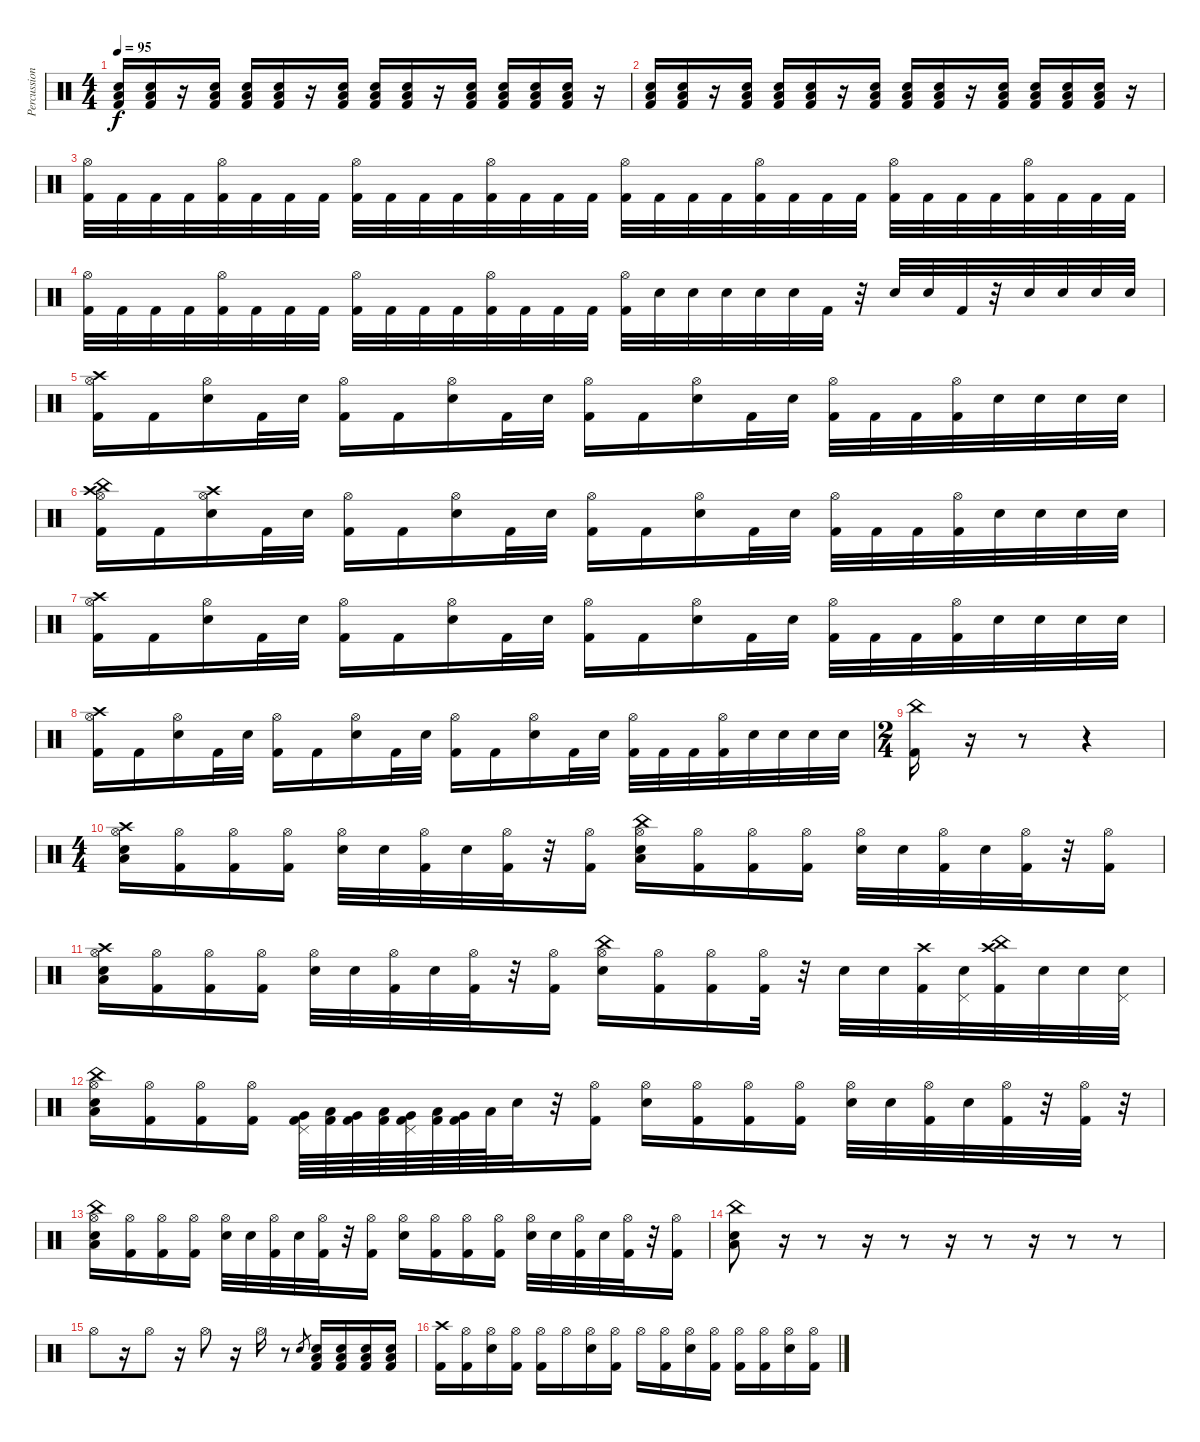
\track ("Percussion" "Percussion") {instrument percussion}
\staff {score}
\articulation defaults
\ts (4 4)
\tempo 95
\clef neutral
\ks c
("Low Floor Tom (hit)" "Electric Snare (hit)" "Kick (hit) 2").16{dy f} ("Low Floor Tom (hit)" "Electric Snare (hit)" "Kick (hit) 2").16 r.16 ("Low Floor Tom (hit)" "Electric Snare (hit)" "Kick (hit) 2").16 ("Low Floor Tom (hit)" "Electric Snare (hit)" "Kick (hit) 2").16 ("Low Floor Tom (hit)" "Electric Snare (hit)" "Kick (hit) 2").16 r.16 ("Low Floor Tom (hit)" "Electric Snare (hit)" "Kick (hit) 2").16 ("Low Floor Tom (hit)" "Electric Snare (hit)" "Kick (hit) 2").16 ("Low Floor Tom (hit)" "Electric Snare (hit)" "Kick (hit) 2").16 r.16 ("Low Floor Tom (hit)" "Electric Snare (hit)" "Kick (hit) 2").16 ("Low Floor Tom (hit)" "Electric Snare (hit)" "Kick (hit) 2").16 ("Low Floor Tom (hit)" "Electric Snare (hit)" "Kick (hit) 2").16 ("Low Floor Tom (hit)" "Electric Snare (hit)" "Kick (hit) 2").16 r.16 |
("Low Floor Tom (hit)" "Electric Snare (hit)" "Kick (hit) 2").16 ("Low Floor Tom (hit)" "Electric Snare (hit)" "Kick (hit) 2").16 r.16 ("Low Floor Tom (hit)" "Electric Snare (hit)" "Kick (hit) 2").16 ("Low Floor Tom (hit)" "Electric Snare (hit)" "Kick (hit) 2").16 ("Low Floor Tom (hit)" "Electric Snare (hit)" "Kick (hit) 2").16 r.16 ("Low Floor Tom (hit)" "Electric Snare (hit)" "Kick (hit) 2").16 ("Low Floor Tom (hit)" "Electric Snare (hit)" "Kick (hit) 2").16 ("Low Floor Tom (hit)" "Electric Snare (hit)" "Kick (hit) 2").16 r.16 ("Low Floor Tom (hit)" "Electric Snare (hit)" "Kick (hit) 2").16 ("Low Floor Tom (hit)" "Electric Snare (hit)" "Kick (hit) 2").16 ("Low Floor Tom (hit)" "Electric Snare (hit)" "Kick (hit) 2").16 ("Low Floor Tom (hit)" "Electric Snare (hit)" "Kick (hit) 2").16 r.16 |
("Hi-Hat (open)" "Kick (hit) 2").32 "Kick (hit) 2".32 "Kick (hit) 2".32 "Kick (hit) 2".32 ("Hi-Hat (open)" "Kick (hit) 2").32 "Kick (hit) 2".32 "Kick (hit) 2".32 "Kick (hit) 2".32 ("Hi-Hat (open)" "Kick (hit) 2").32 "Kick (hit) 2".32 "Kick (hit) 2".32 "Kick (hit) 2".32 ("Hi-Hat (open)" "Kick (hit) 2").32 "Kick (hit) 2".32 "Kick (hit) 2".32 "Kick (hit) 2".32 ("Hi-Hat (open)" "Kick (hit) 2").32 "Kick (hit) 2".32 "Kick (hit) 2".32 "Kick (hit) 2".32 ("Hi-Hat (open)" "Kick (hit) 2").32 "Kick (hit) 2".32 "Kick (hit) 2".32 "Kick (hit) 2".32 ("Hi-Hat (open)" "Kick (hit) 2").32 "Kick (hit) 2".32 "Kick (hit) 2".32 "Kick (hit) 2".32 ("Hi-Hat (open)" "Kick (hit) 2").32 "Kick (hit) 2".32 "Kick (hit) 2".32 "Kick (hit) 2".32 |
("Hi-Hat (open)" "Kick (hit) 2").32 "Kick (hit) 2".32 "Kick (hit) 2".32 "Kick (hit) 2".32 ("Hi-Hat (open)" "Kick (hit) 2").32 "Kick (hit) 2".32 "Kick (hit) 2".32 "Kick (hit) 2".32 ("Hi-Hat (open)" "Kick (hit) 2").32 "Kick (hit) 2".32 "Kick (hit) 2".32 "Kick (hit) 2".32 ("Hi-Hat (open)" "Kick (hit) 2").32 "Kick (hit) 2".32 "Kick (hit) 2".32 "Kick (hit) 2".32 ("Hi-Hat (open)" "Kick (hit) 2").32 "Electric Snare (hit)".32 "Electric Snare (hit)".32 "Electric Snare (hit)".32 "Electric Snare (hit)".32 "Electric Snare (hit)".32 "Kick (hit) 2".32 r.32 "Electric Snare (hit)".32 "Electric Snare (hit)".32 "Kick (hit) 2".32 r.32 "Electric Snare (hit)".32 "Electric Snare (hit)".32 "Electric Snare (hit)".32 "Electric Snare (hit)".32 |
("Crash high (hit)" "Hi-Hat (open)" "Kick (hit) 2").16 "Kick (hit) 2".16 ("Hi-Hat (open)" "Electric Snare (hit)").16 "Kick (hit) 2".32 "Electric Snare (hit)".32 ("Hi-Hat (open)" "Kick (hit) 2").16 "Kick (hit) 2".16 ("Hi-Hat (open)" "Electric Snare (hit)").16 "Kick (hit) 2".32 "Electric Snare (hit)".32 ("Hi-Hat (open)" "Kick (hit) 2").16 "Kick (hit) 2".16 ("Hi-Hat (open)" "Electric Snare (hit)").16 "Kick (hit) 2".32 "Electric Snare (hit)".32 ("Hi-Hat (open)" "Kick (hit) 2").32 "Kick (hit) 2".32 "Kick (hit) 2".32 ("Hi-Hat (open)" "Kick (hit) 2").32 "Electric Snare (hit)".32 "Electric Snare (hit)".32 "Electric Snare (hit)".32 "Electric Snare (hit)".32 |
("China (hit)" "Crash high (hit)" "Hi-Hat (open)" "Kick (hit) 2").16 "Kick (hit) 2".16 ("Crash high (hit)" "Hi-Hat (open)" "Electric Snare (hit)").16 "Kick (hit) 2".32 "Electric Snare (hit)".32 ("Hi-Hat (open)" "Kick (hit) 2").16 "Kick (hit) 2".16 ("Hi-Hat (open)" "Electric Snare (hit)").16 "Kick (hit) 2".32 "Electric Snare (hit)".32 ("Hi-Hat (open)" "Kick (hit) 2").16 "Kick (hit) 2".16 ("Hi-Hat (open)" "Electric Snare (hit)").16 "Kick (hit) 2".32 "Electric Snare (hit)".32 ("Hi-Hat (open)" "Kick (hit) 2").32 "Kick (hit) 2".32 "Kick (hit) 2".32 ("Hi-Hat (open)" "Kick (hit) 2").32 "Electric Snare (hit)".32 "Electric Snare (hit)".32 "Electric Snare (hit)".32 "Electric Snare (hit)".32 |
("Crash high (hit)" "Hi-Hat (open)" "Kick (hit) 2").16 "Kick (hit) 2".16 ("Hi-Hat (open)" "Electric Snare (hit)").16 "Kick (hit) 2".32 "Electric Snare (hit)".32 ("Hi-Hat (open)" "Kick (hit) 2").16 "Kick (hit) 2".16 ("Hi-Hat (open)" "Electric Snare (hit)").16 "Kick (hit) 2".32 "Electric Snare (hit)".32 ("Hi-Hat (open)" "Kick (hit) 2").16 "Kick (hit) 2".16 ("Hi-Hat (open)" "Electric Snare (hit)").16 "Kick (hit) 2".32 "Electric Snare (hit)".32 ("Hi-Hat (open)" "Kick (hit) 2").32 "Kick (hit) 2".32 "Kick (hit) 2".32 ("Hi-Hat (open)" "Kick (hit) 2").32 "Electric Snare (hit)".32 "Electric Snare (hit)".32 "Electric Snare (hit)".32 "Electric Snare (hit)".32 |
("Crash high (hit)" "Hi-Hat (open)" "Kick (hit) 2").16 "Kick (hit) 2".16 ("Hi-Hat (open)" "Electric Snare (hit)").16 "Kick (hit) 2".32 "Electric Snare (hit)".32 ("Hi-Hat (open)" "Kick (hit) 2").16 "Kick (hit) 2".16 ("Hi-Hat (open)" "Electric Snare (hit)").16 "Kick (hit) 2".32 "Electric Snare (hit)".32 ("Hi-Hat (open)" "Kick (hit) 2").16 "Kick (hit) 2".16 ("Hi-Hat (open)" "Electric Snare (hit)").16 "Kick (hit) 2".32 "Electric Snare (hit)".32 ("Hi-Hat (open)" "Kick (hit) 2").32 "Kick (hit) 2".32 "Kick (hit) 2".32 ("Hi-Hat (open)" "Kick (hit) 2").32 "Electric Snare (hit)".32 "Electric Snare (hit)".32 "Electric Snare (hit)".32 "Electric Snare (hit)".32 |
\ts (2 4)
("China (hit)" "Kick (hit) 2").16 r.16 r.8 r.4 |
\ts (4 4)
("Crash high (hit)" "Hi-Hat (open)" "Low Floor Tom (hit)" "Electric Snare (hit)").16 ("Hi-Hat (open)" "Kick (hit) 2").16 ("Hi-Hat (open)" "Kick (hit) 2").16 ("Hi-Hat (open)" "Kick (hit) 2").16 ("Hi-Hat (open)" "Electric Snare (hit)").32 "Electric Snare (hit)".32 ("Hi-Hat (open)" "Kick (hit) 2").32 "Electric Snare (hit)".32 ("Hi-Hat (open)" "Kick (hit) 2").32 r.32 ("Hi-Hat (open)" "Kick (hit) 2").16 ("China (hit)" "Hi-Hat (open)" "Low Floor Tom (hit)" "Electric Snare (hit)").16 ("Hi-Hat (open)" "Kick (hit) 2").16 ("Hi-Hat (open)" "Kick (hit) 2").16 ("Hi-Hat (open)" "Kick (hit) 2").16 ("Hi-Hat (open)" "Electric Snare (hit)").32 "Electric Snare (hit)".32 ("Hi-Hat (open)" "Kick (hit) 2").32 "Electric Snare (hit)".32 ("Hi-Hat (open)" "Kick (hit) 2").32 r.32 ("Hi-Hat (open)" "Kick (hit) 2").16 |
("Crash high (hit)" "Hi-Hat (open)" "Low Floor Tom (hit)" "Electric Snare (hit)").16 ("Hi-Hat (open)" "Kick (hit) 2").16 ("Hi-Hat (open)" "Kick (hit) 2").16 ("Hi-Hat (open)" "Kick (hit) 2").16 ("Hi-Hat (open)" "Electric Snare (hit)").32 "Electric Snare (hit)".32 ("Hi-Hat (open)" "Kick (hit) 2").32 "Electric Snare (hit)".32 ("Hi-Hat (open)" "Kick (hit) 2").32 r.32 ("Hi-Hat (open)" "Kick (hit) 2").16 ("China (hit)" "Hi-Hat (open)" "Electric Snare (hit)").16 ("Hi-Hat (open)" "Kick (hit) 2").16 ("Hi-Hat (open)" "Kick (hit) 2").16 ("Hi-Hat (open)" "Kick (hit) 2").32 r.32 "Electric Snare (hit)".32 "Electric Snare (hit)".32 ("Crash high (hit)" "Kick (hit) 2").32 ("Pedal Hi-Hat (hit)" "Electric Snare (hit)").32 ("Crash high (hit)" "China (hit)" "Kick (hit) 2").32 "Electric Snare (hit)".32 "Electric Snare (hit)".32 ("Pedal Hi-Hat (hit)" "Electric Snare (hit)").32 |
("China (hit)" "Hi-Hat (open)" "Low Floor Tom (hit)" "Electric Snare (hit)").16 ("Hi-Hat (open)" "Kick (hit) 2").16 ("Hi-Hat (open)" "Kick (hit) 2").16 ("Hi-Hat (open)" "Kick (hit) 2").16 ("Kick (hit) 2" "Pedal Hi-Hat (hit)" "Very Low Tom (hit)").64 ("Kick (hit) 2" "Low Tom (hit)").64 ("Kick (hit) 2" "Very Low Tom (hit)").64 ("Kick (hit) 2" "Low Tom (hit)").64 ("Kick (hit) 2" "Pedal Hi-Hat (hit)" "Very Low Tom (hit)").64 ("Kick (hit) 2" "Low Tom (hit)").64 ("Kick (hit) 2" "Very Low Tom (hit)").64 "Low Tom (hit)".64 "Electric Snare (hit)".32 r.32 ("Hi-Hat (open)" "Kick (hit) 2").16 ("Hi-Hat (open)" "Electric Snare (hit)").16 ("Hi-Hat (open)" "Kick (hit) 2").16 ("Hi-Hat (open)" "Kick (hit) 2").16 ("Hi-Hat (open)" "Kick (hit) 2").16 ("Hi-Hat (open)" "Electric Snare (hit)").32 "Electric Snare (hit)".32 ("Hi-Hat (open)" "Kick (hit) 2").32 "Electric Snare (hit)".32 ("Hi-Hat (open)" "Kick (hit) 2").32 r.32 ("Hi-Hat (open)" "Kick (hit) 2").32 r.32 |
("China (hit)" "Hi-Hat (open)" "Low Floor Tom (hit)" "Electric Snare (hit)").16 ("Hi-Hat (open)" "Kick (hit) 2").16 ("Hi-Hat (open)" "Kick (hit) 2").16 ("Hi-Hat (open)" "Kick (hit) 2").16 ("Hi-Hat (open)" "Electric Snare (hit)").32 "Electric Snare (hit)".32 ("Hi-Hat (open)" "Kick (hit) 2").32 "Electric Snare (hit)".32 ("Hi-Hat (open)" "Kick (hit) 2").32 r.32 ("Hi-Hat (open)" "Kick (hit) 2").16 ("Hi-Hat (open)" "Electric Snare (hit)").16 ("Hi-Hat (open)" "Kick (hit) 2").16 ("Hi-Hat (open)" "Kick (hit) 2").16 ("Hi-Hat (open)" "Kick (hit) 2").16 ("Hi-Hat (open)" "Electric Snare (hit)").32 "Electric Snare (hit)".32 ("Hi-Hat (open)" "Kick (hit) 2").32 "Electric Snare (hit)".32 ("Hi-Hat (open)" "Kick (hit) 2").32 r.32 ("Hi-Hat (open)" "Kick (hit) 2").16 |
("China (hit)" "Low Floor Tom (hit)" "Electric Snare (hit)").8 r.16 r.8 r.16 r.8 r.16 r.8 r.16 r.8 r.8 |
"Hi-Hat (open)".8 r.16 "Hi-Hat (open)".8 r.16 "Hi-Hat (open)".8 r.16 "Hi-Hat (open)".16 r.8 "Electric Snare (hit)".8{gr} ("Kick (hit) 2" "Low Floor Tom (hit)" "Electric Snare (hit)").16 ("Kick (hit) 2" "Low Floor Tom (hit)" "Electric Snare (hit)").16 ("Kick (hit) 2" "Low Floor Tom (hit)" "Electric Snare (hit)").16 ("Kick (hit) 2" "Low Floor Tom (hit)" "Electric Snare (hit)").16 |
("Crash high (hit)" "Kick (hit) 2").16 ("Hi-Hat (open)" "Kick (hit) 2").16 ("Hi-Hat (open)" "Electric Snare (hit)").16 ("Hi-Hat (open)" "Kick (hit) 2").16 ("Hi-Hat (open)" "Kick (hit) 2").16 "Hi-Hat (open)".16 ("Hi-Hat (open)" "Electric Snare (hit)").16 ("Hi-Hat (open)" "Kick (hit) 2").16 "Hi-Hat (open)".16 ("Hi-Hat (open)" "Kick (hit) 2").16 ("Hi-Hat (open)" "Electric Snare (hit)").16 ("Hi-Hat (open)" "Kick (hit) 2").16 ("Hi-Hat (open)" "Kick (hit) 2").16 ("Hi-Hat (open)" "Kick (hit) 2").16 ("Hi-Hat (open)" "Electric Snare (hit)").16 ("Hi-Hat (open)" "Kick (hit) 2").16
